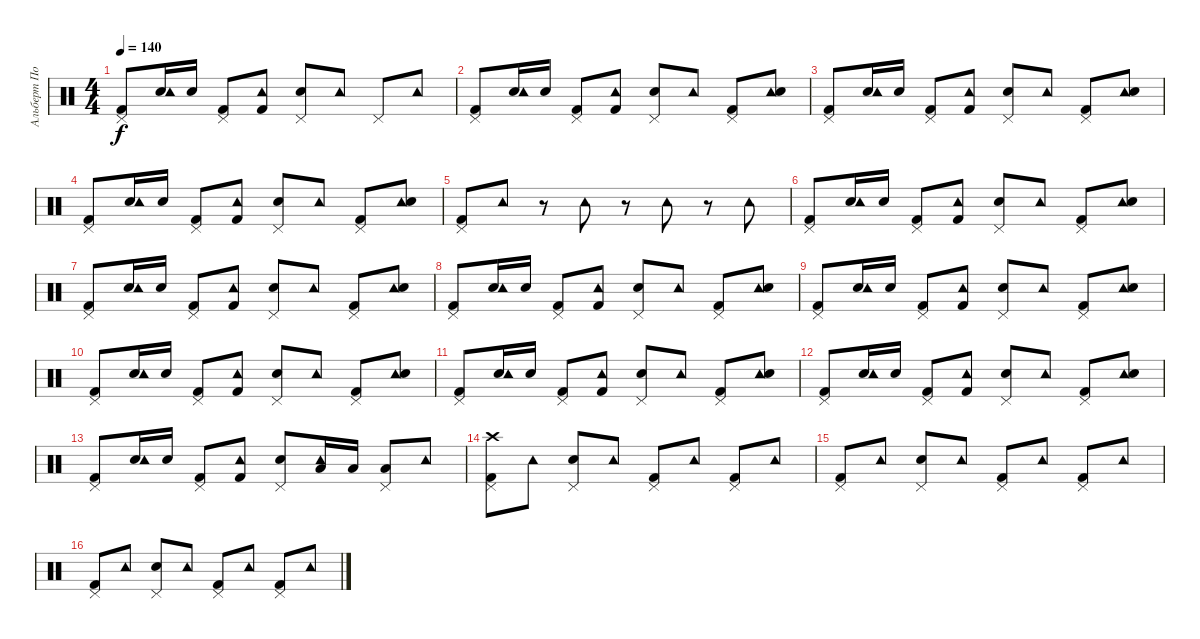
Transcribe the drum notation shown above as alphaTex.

\track ("Альберт Потапкин" "Альберт По") {instrument percussion}
\staff {score}
\articulation defaults
\ts (4 4)
\tempo 140
\clef neutral
\ks c
("Pedal Hi-Hat (hit)" "Kick (hit) 2").8{dy f} ("Electric Snare (hit)" "Tambourine (hit)").16 "Electric Snare (hit)".16 ("Pedal Hi-Hat (hit)" "Kick (hit) 2").8 ("Kick (hit) 2" "Tambourine (hit)").8 ("Pedal Hi-Hat (hit)" "Electric Snare (hit)").8 "Tambourine (hit)".8 "Pedal Hi-Hat (hit)".8 "Tambourine (hit)".8 |
("Pedal Hi-Hat (hit)" "Kick (hit) 2").8 ("Electric Snare (hit)" "Tambourine (hit)").16 "Electric Snare (hit)".16 ("Pedal Hi-Hat (hit)" "Kick (hit) 2").8 ("Kick (hit) 2" "Tambourine (hit)").8 ("Pedal Hi-Hat (hit)" "Electric Snare (hit)").8 "Tambourine (hit)".8 ("Pedal Hi-Hat (hit)" "Kick (hit) 2").8 ("Tambourine (hit)" "Electric Snare (hit)").8 |
("Pedal Hi-Hat (hit)" "Kick (hit) 2").8 ("Electric Snare (hit)" "Tambourine (hit)").16 "Electric Snare (hit)".16 ("Pedal Hi-Hat (hit)" "Kick (hit) 2").8 ("Kick (hit) 2" "Tambourine (hit)").8 ("Pedal Hi-Hat (hit)" "Electric Snare (hit)").8 "Tambourine (hit)".8 ("Kick (hit) 2" "Pedal Hi-Hat (hit)").8 ("Tambourine (hit)" "Electric Snare (hit)").8 |
("Pedal Hi-Hat (hit)" "Kick (hit) 2").8 ("Electric Snare (hit)" "Tambourine (hit)").16 "Electric Snare (hit)".16 ("Pedal Hi-Hat (hit)" "Kick (hit) 2").8 ("Kick (hit) 2" "Tambourine (hit)").8 ("Pedal Hi-Hat (hit)" "Electric Snare (hit)").8 "Tambourine (hit)".8 ("Pedal Hi-Hat (hit)" "Kick (hit) 2").8 ("Tambourine (hit)" "Electric Snare (hit)").8 |
("Pedal Hi-Hat (hit)" "Kick (hit) 2").8 "Tambourine (hit)".8 r.8 "Tambourine (hit)".8 r.8 "Tambourine (hit)".8 r.8 "Tambourine (hit)".8 |
("Pedal Hi-Hat (hit)" "Kick (hit) 2").8 ("Electric Snare (hit)" "Tambourine (hit)").16 "Electric Snare (hit)".16 ("Pedal Hi-Hat (hit)" "Kick (hit) 2").8 ("Kick (hit) 2" "Tambourine (hit)").8 ("Pedal Hi-Hat (hit)" "Electric Snare (hit)").8 "Tambourine (hit)".8 ("Pedal Hi-Hat (hit)" "Kick (hit) 2").8 ("Tambourine (hit)" "Electric Snare (hit)").8 |
("Pedal Hi-Hat (hit)" "Kick (hit) 2").8 ("Electric Snare (hit)" "Tambourine (hit)").16 "Electric Snare (hit)".16 ("Pedal Hi-Hat (hit)" "Kick (hit) 2").8 ("Kick (hit) 2" "Tambourine (hit)").8 ("Pedal Hi-Hat (hit)" "Electric Snare (hit)").8 "Tambourine (hit)".8 ("Pedal Hi-Hat (hit)" "Kick (hit) 2").8 ("Tambourine (hit)" "Electric Snare (hit)").8 |
("Pedal Hi-Hat (hit)" "Kick (hit) 2").8 ("Electric Snare (hit)" "Tambourine (hit)").16 "Electric Snare (hit)".16 ("Pedal Hi-Hat (hit)" "Kick (hit) 2").8 ("Kick (hit) 2" "Tambourine (hit)").8 ("Pedal Hi-Hat (hit)" "Electric Snare (hit)").8 "Tambourine (hit)".8 ("Pedal Hi-Hat (hit)" "Kick (hit) 2").8 ("Tambourine (hit)" "Electric Snare (hit)").8 |
("Pedal Hi-Hat (hit)" "Kick (hit) 2").8 ("Electric Snare (hit)" "Tambourine (hit)").16 "Electric Snare (hit)".16 ("Pedal Hi-Hat (hit)" "Kick (hit) 2").8 ("Kick (hit) 2" "Tambourine (hit)").8 ("Pedal Hi-Hat (hit)" "Electric Snare (hit)").8 "Tambourine (hit)".8 ("Pedal Hi-Hat (hit)" "Kick (hit) 2").8 ("Tambourine (hit)" "Electric Snare (hit)").8 |
("Pedal Hi-Hat (hit)" "Kick (hit) 2").8 ("Electric Snare (hit)" "Tambourine (hit)").16 "Electric Snare (hit)".16 ("Pedal Hi-Hat (hit)" "Kick (hit) 2").8 ("Kick (hit) 2" "Tambourine (hit)").8 ("Pedal Hi-Hat (hit)" "Electric Snare (hit)").8 "Tambourine (hit)".8 ("Pedal Hi-Hat (hit)" "Kick (hit) 2").8 ("Tambourine (hit)" "Electric Snare (hit)").8 |
("Pedal Hi-Hat (hit)" "Kick (hit) 2").8 ("Electric Snare (hit)" "Tambourine (hit)").16 "Electric Snare (hit)".16 ("Pedal Hi-Hat (hit)" "Kick (hit) 2").8 ("Kick (hit) 2" "Tambourine (hit)").8 ("Pedal Hi-Hat (hit)" "Electric Snare (hit)").8 "Tambourine (hit)".8 ("Pedal Hi-Hat (hit)" "Kick (hit) 2").8 ("Tambourine (hit)" "Electric Snare (hit)").8 |
("Pedal Hi-Hat (hit)" "Kick (hit) 2").8 ("Electric Snare (hit)" "Tambourine (hit)").16 "Electric Snare (hit)".16 ("Pedal Hi-Hat (hit)" "Kick (hit) 2").8 ("Kick (hit) 2" "Tambourine (hit)").8 ("Pedal Hi-Hat (hit)" "Electric Snare (hit)").8 "Tambourine (hit)".8 ("Pedal Hi-Hat (hit)" "Kick (hit) 2").8 ("Tambourine (hit)" "Electric Snare (hit)").8 |
("Pedal Hi-Hat (hit)" "Kick (hit) 2").8 ("Electric Snare (hit)" "Tambourine (hit)").16 "Electric Snare (hit)".16 ("Pedal Hi-Hat (hit)" "Kick (hit) 2").8 ("Kick (hit) 2" "Tambourine (hit)").8 ("Pedal Hi-Hat (hit)" "Electric Snare (hit)").8 ("Tambourine (hit)" "Low Floor Tom (hit)").16 "Low Floor Tom (hit)".16 ("Pedal Hi-Hat (hit)" "Low Floor Tom (hit)").8 "Tambourine (hit)".8 |
("Pedal Hi-Hat (hit)" "Kick (hit) 2" "Crash high (hit)").8 "Tambourine (hit)".8 ("Pedal Hi-Hat (hit)" "Snare (hit) 2").8 "Tambourine (hit)".8 ("Pedal Hi-Hat (hit)" "Kick (hit) 2").8 "Tambourine (hit)".8 ("Pedal Hi-Hat (hit)" "Kick (hit) 2").8 "Tambourine (hit)".8 |
("Pedal Hi-Hat (hit)" "Kick (hit) 2").8 "Tambourine (hit)".8 ("Pedal Hi-Hat (hit)" "Snare (hit) 2").8 "Tambourine (hit)".8 ("Pedal Hi-Hat (hit)" "Kick (hit) 2").8 "Tambourine (hit)".8 ("Pedal Hi-Hat (hit)" "Kick (hit) 2").8 "Tambourine (hit)".8 |
("Pedal Hi-Hat (hit)" "Kick (hit) 2").8 "Tambourine (hit)".8 ("Pedal Hi-Hat (hit)" "Snare (hit) 2").8 "Tambourine (hit)".8 ("Pedal Hi-Hat (hit)" "Kick (hit) 2").8 "Tambourine (hit)".8 ("Pedal Hi-Hat (hit)" "Kick (hit) 2").8 "Tambourine (hit)".8
